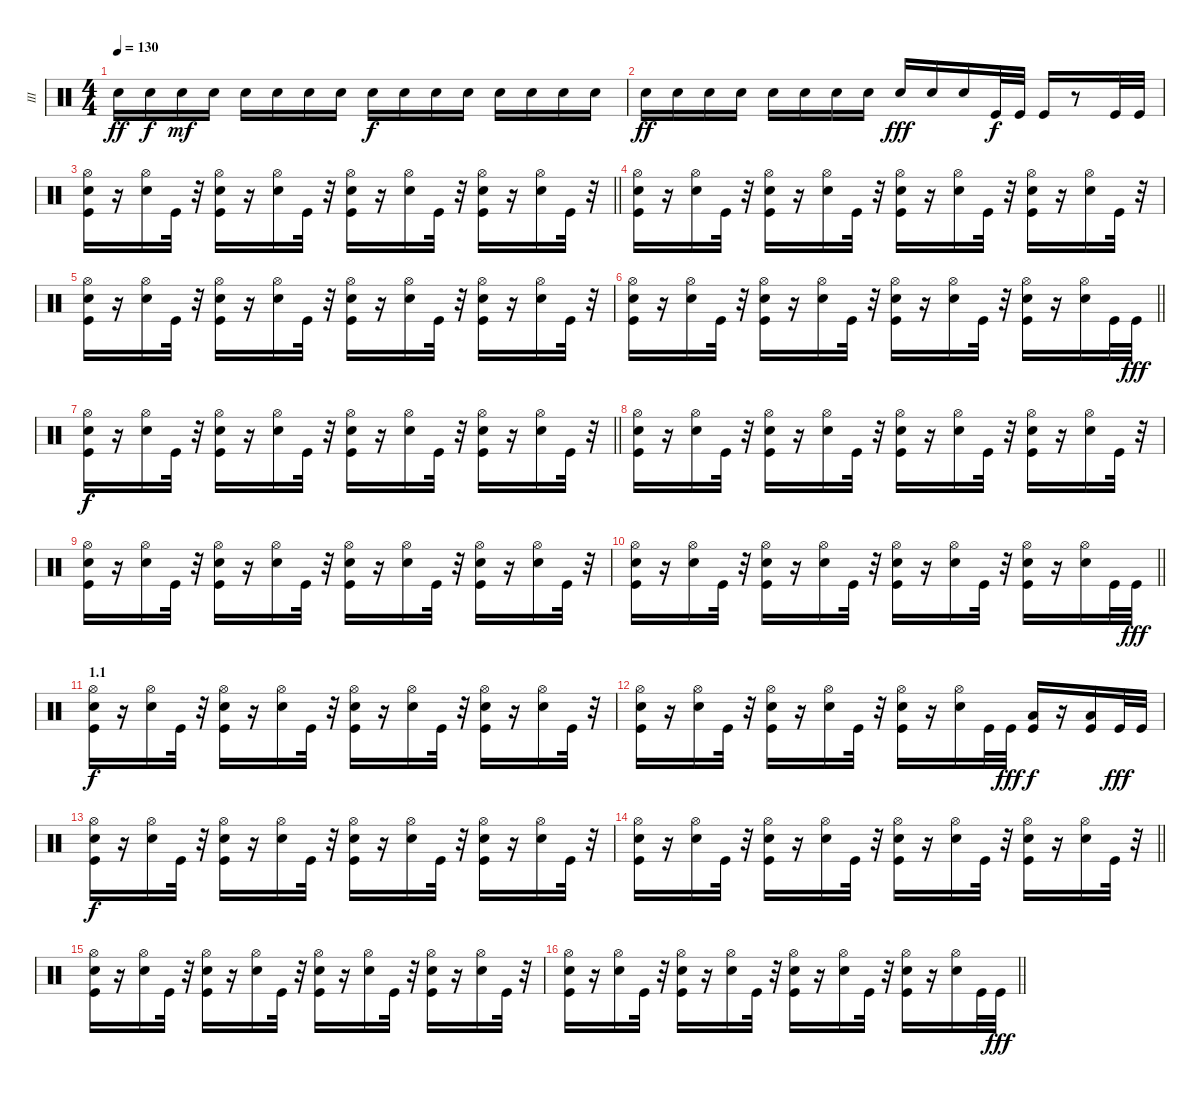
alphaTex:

\track ("III" "III") {instrument percussion}
\staff {score}
\articulation defaults
\ts (4 4)
\tempo 130
\clef neutral
\ks c "Snare (hit) 2".16{dy ff} "Snare (hit) 2".16{dy f} "Snare (hit) 2".16{dy mf} "Snare (hit) 2".16 "Snare (hit) 2".16 "Snare (hit) 2".16 "Snare (hit) 2".16 "Snare (hit) 2".16 "Snare (hit) 2".16{dy f} "Snare (hit) 2".16 "Snare (hit) 2".16 "Snare (hit) 2".16 "Snare (hit) 2".16 "Snare (hit) 2".16 "Snare (hit) 2".16 "Snare (hit) 2".16
|
"Snare (hit) 2".16{dy ff} "Snare (hit) 2".16 "Snare (hit) 2".16 "Snare (hit) 2".16 "Snare (hit) 2".16 "Snare (hit) 2".16 "Snare (hit) 2".16 "Snare (hit) 2".16 "Snare (hit) 2".16{dy fff} "Snare (hit) 2".16 "Snare (hit) 2".16 "Kick (hit)".32{dy f} "Kick (hit)".32 "Kick (hit)".16 r.8 "Kick (hit)".32 "Kick (hit)".32 |
\barLineRight lightlight
("Hi-Hat (open)" "Kick (hit)" "Snare (hit) 2").16 r.16 ("Hi-Hat (open)" "Snare (hit) 2").16 "Kick (hit)".32 r.32 ("Hi-Hat (open)" "Kick (hit)" "Snare (hit) 2").16 r.16 ("Hi-Hat (open)" "Snare (hit) 2").16 "Kick (hit)".32 r.32 ("Hi-Hat (open)" "Kick (hit)" "Snare (hit) 2").16 r.16 ("Hi-Hat (open)" "Snare (hit) 2").16 "Kick (hit)".32 r.32 ("Hi-Hat (open)" "Kick (hit)" "Snare (hit) 2").16 r.16 ("Hi-Hat (open)" "Snare (hit) 2").16 "Kick (hit)".32 r.32 |
("Hi-Hat (open)" "Kick (hit)" "Snare (hit) 2").16 r.16 ("Hi-Hat (open)" "Snare (hit) 2").16 "Kick (hit)".32 r.32 ("Hi-Hat (open)" "Kick (hit)" "Snare (hit) 2").16 r.16 ("Hi-Hat (open)" "Snare (hit) 2").16 "Kick (hit)".32 r.32 ("Hi-Hat (open)" "Kick (hit)" "Snare (hit) 2").16 r.16 ("Hi-Hat (open)" "Snare (hit) 2").16 "Kick (hit)".32 r.32 ("Hi-Hat (open)" "Kick (hit)" "Snare (hit) 2").16 r.16 ("Hi-Hat (open)" "Snare (hit) 2").16 "Kick (hit)".32 r.32 |
("Hi-Hat (open)" "Kick (hit)" "Snare (hit) 2").16 r.16 ("Hi-Hat (open)" "Snare (hit) 2").16 "Kick (hit)".32 r.32 ("Hi-Hat (open)" "Kick (hit)" "Snare (hit) 2").16 r.16 ("Hi-Hat (open)" "Snare (hit) 2").16 "Kick (hit)".32 r.32 ("Hi-Hat (open)" "Kick (hit)" "Snare (hit) 2").16 r.16 ("Hi-Hat (open)" "Snare (hit) 2").16 "Kick (hit)".32 r.32 ("Hi-Hat (open)" "Kick (hit)" "Snare (hit) 2").16 r.16 ("Hi-Hat (open)" "Snare (hit) 2").16 "Kick (hit)".32 r.32 |
\barLineRight lightlight
("Hi-Hat (open)" "Kick (hit)" "Snare (hit) 2").16 r.16 ("Hi-Hat (open)" "Snare (hit) 2").16 "Kick (hit)".32 r.32 ("Hi-Hat (open)" "Kick (hit)" "Snare (hit) 2").16 r.16 ("Hi-Hat (open)" "Snare (hit) 2").16 "Kick (hit)".32 r.32 ("Hi-Hat (open)" "Kick (hit)" "Snare (hit) 2").16 r.16 ("Hi-Hat (open)" "Snare (hit) 2").16 "Kick (hit)".32 r.32 ("Hi-Hat (open)" "Kick (hit)" "Snare (hit) 2").16 r.16 ("Hi-Hat (open)" "Snare (hit) 2").16 "Kick (hit)".32 "Kick (hit)".32{dy fff} |
\barLineRight lightlight
("Hi-Hat (open)" "Kick (hit)" "Snare (hit) 2").16{dy f} r.16 ("Hi-Hat (open)" "Snare (hit) 2").16 "Kick (hit)".32 r.32 ("Hi-Hat (open)" "Kick (hit)" "Snare (hit) 2").16 r.16 ("Hi-Hat (open)" "Snare (hit) 2").16 "Kick (hit)".32 r.32 ("Hi-Hat (open)" "Kick (hit)" "Snare (hit) 2").16 r.16 ("Hi-Hat (open)" "Snare (hit) 2").16 "Kick (hit)".32 r.32 ("Hi-Hat (open)" "Kick (hit)" "Snare (hit) 2").16 r.16 ("Hi-Hat (open)" "Snare (hit) 2").16 "Kick (hit)".32 r.32 |
("Hi-Hat (open)" "Kick (hit)" "Snare (hit) 2").16 r.16 ("Hi-Hat (open)" "Snare (hit) 2").16 "Kick (hit)".32 r.32 ("Hi-Hat (open)" "Kick (hit)" "Snare (hit) 2").16 r.16 ("Hi-Hat (open)" "Snare (hit) 2").16 "Kick (hit)".32 r.32 ("Hi-Hat (open)" "Kick (hit)" "Snare (hit) 2").16 r.16 ("Hi-Hat (open)" "Snare (hit) 2").16 "Kick (hit)".32 r.32 ("Hi-Hat (open)" "Kick (hit)" "Snare (hit) 2").16 r.16 ("Hi-Hat (open)" "Snare (hit) 2").16 "Kick (hit)".32 r.32 |
("Hi-Hat (open)" "Kick (hit)" "Snare (hit) 2").16 r.16 ("Hi-Hat (open)" "Snare (hit) 2").16 "Kick (hit)".32 r.32 ("Hi-Hat (open)" "Kick (hit)" "Snare (hit) 2").16 r.16 ("Hi-Hat (open)" "Snare (hit) 2").16 "Kick (hit)".32 r.32 ("Hi-Hat (open)" "Kick (hit)" "Snare (hit) 2").16 r.16 ("Hi-Hat (open)" "Snare (hit) 2").16 "Kick (hit)".32 r.32 ("Hi-Hat (open)" "Kick (hit)" "Snare (hit) 2").16 r.16 ("Hi-Hat (open)" "Snare (hit) 2").16 "Kick (hit)".32 r.32 |
\barLineRight lightlight
("Hi-Hat (open)" "Kick (hit)" "Snare (hit) 2").16 r.16 ("Hi-Hat (open)" "Snare (hit) 2").16 "Kick (hit)".32 r.32 ("Hi-Hat (open)" "Kick (hit)" "Snare (hit) 2").16 r.16 ("Hi-Hat (open)" "Snare (hit) 2").16 "Kick (hit)".32 r.32 ("Hi-Hat (open)" "Kick (hit)" "Snare (hit) 2").16 r.16 ("Hi-Hat (open)" "Snare (hit) 2").16 "Kick (hit)".32 r.32 ("Hi-Hat (open)" "Kick (hit)" "Snare (hit) 2").16 r.16 ("Hi-Hat (open)" "Snare (hit) 2").16 "Kick (hit)".32 "Kick (hit)".32{dy fff} |
\section ("" "1.1")
("Hi-Hat (open)" "Kick (hit)" "Snare (hit) 2").16{dy f} r.16 ("Hi-Hat (open)" "Snare (hit) 2").16 "Kick (hit)".32 r.32 ("Hi-Hat (open)" "Kick (hit)" "Snare (hit) 2").16 r.16 ("Hi-Hat (open)" "Snare (hit) 2").16 "Kick (hit)".32 r.32 ("Hi-Hat (open)" "Kick (hit)" "Snare (hit) 2").16 r.16 ("Hi-Hat (open)" "Snare (hit) 2").16 "Kick (hit)".32 r.32 ("Hi-Hat (open)" "Kick (hit)" "Snare (hit) 2").16 r.16 ("Hi-Hat (open)" "Snare (hit) 2").16 "Kick (hit)".32 r.32 |
("Hi-Hat (open)" "Kick (hit)" "Snare (hit) 2").16 r.16 ("Hi-Hat (open)" "Snare (hit) 2").16 "Kick (hit)".32 r.32 ("Hi-Hat (open)" "Kick (hit)" "Snare (hit) 2").16 r.16 ("Hi-Hat (open)" "Snare (hit) 2").16 "Kick (hit)".32 r.32 ("Hi-Hat (open)" "Kick (hit)" "Snare (hit) 2").16 r.16 ("Hi-Hat (open)" "Snare (hit) 2").16 "Kick (hit)".32 "Kick (hit)".32{dy fff} ("Kick (hit)" "Low Tom (hit)").16{dy f} r.16 ("Kick (hit)" "Low Tom (hit)").16 "Kick (hit)".32{dy fff} "Kick (hit)".32 |
("Hi-Hat (open)" "Kick (hit)" "Snare (hit) 2").16{dy f} r.16 ("Hi-Hat (open)" "Snare (hit) 2").16 "Kick (hit)".32 r.32 ("Hi-Hat (open)" "Kick (hit)" "Snare (hit) 2").16 r.16 ("Hi-Hat (open)" "Snare (hit) 2").16 "Kick (hit)".32 r.32 ("Hi-Hat (open)" "Kick (hit)" "Snare (hit) 2").16 r.16 ("Hi-Hat (open)" "Snare (hit) 2").16 "Kick (hit)".32 r.32 ("Hi-Hat (open)" "Kick (hit)" "Snare (hit) 2").16 r.16 ("Hi-Hat (open)" "Snare (hit) 2").16 "Kick (hit)".32 r.32 |
\barLineRight lightlight
("Hi-Hat (open)" "Kick (hit)" "Snare (hit) 2").16 r.16 ("Hi-Hat (open)" "Snare (hit) 2").16 "Kick (hit)".32 r.32 ("Hi-Hat (open)" "Kick (hit)" "Snare (hit) 2").16 r.16 ("Hi-Hat (open)" "Snare (hit) 2").16 "Kick (hit)".32 r.32 ("Hi-Hat (open)" "Kick (hit)" "Snare (hit) 2").16 r.16 ("Hi-Hat (open)" "Snare (hit) 2").16 "Kick (hit)".32 r.32 ("Hi-Hat (open)" "Kick (hit)" "Snare (hit) 2").16 r.16 ("Hi-Hat (open)" "Snare (hit) 2").16 "Kick (hit)".32 r.32 |
("Hi-Hat (open)" "Kick (hit)" "Snare (hit) 2").16 r.16 ("Hi-Hat (open)" "Snare (hit) 2").16 "Kick (hit)".32 r.32 ("Hi-Hat (open)" "Kick (hit)" "Snare (hit) 2").16 r.16 ("Hi-Hat (open)" "Snare (hit) 2").16 "Kick (hit)".32 r.32 ("Hi-Hat (open)" "Kick (hit)" "Snare (hit) 2").16 r.16 ("Hi-Hat (open)" "Snare (hit) 2").16 "Kick (hit)".32 r.32 ("Hi-Hat (open)" "Kick (hit)" "Snare (hit) 2").16 r.16 ("Hi-Hat (open)" "Snare (hit) 2").16 "Kick (hit)".32 r.32 |
\barLineRight lightlight
("Hi-Hat (open)" "Kick (hit)" "Snare (hit) 2").16 r.16 ("Hi-Hat (open)" "Snare (hit) 2").16 "Kick (hit)".32 r.32 ("Hi-Hat (open)" "Kick (hit)" "Snare (hit) 2").16 r.16 ("Hi-Hat (open)" "Snare (hit) 2").16 "Kick (hit)".32 r.32 ("Hi-Hat (open)" "Kick (hit)" "Snare (hit) 2").16 r.16 ("Hi-Hat (open)" "Snare (hit) 2").16 "Kick (hit)".32 r.32 ("Hi-Hat (open)" "Kick (hit)" "Snare (hit) 2").16 r.16 ("Hi-Hat (open)" "Snare (hit) 2").16 "Kick (hit)".32 "Kick (hit)".32{dy fff}
